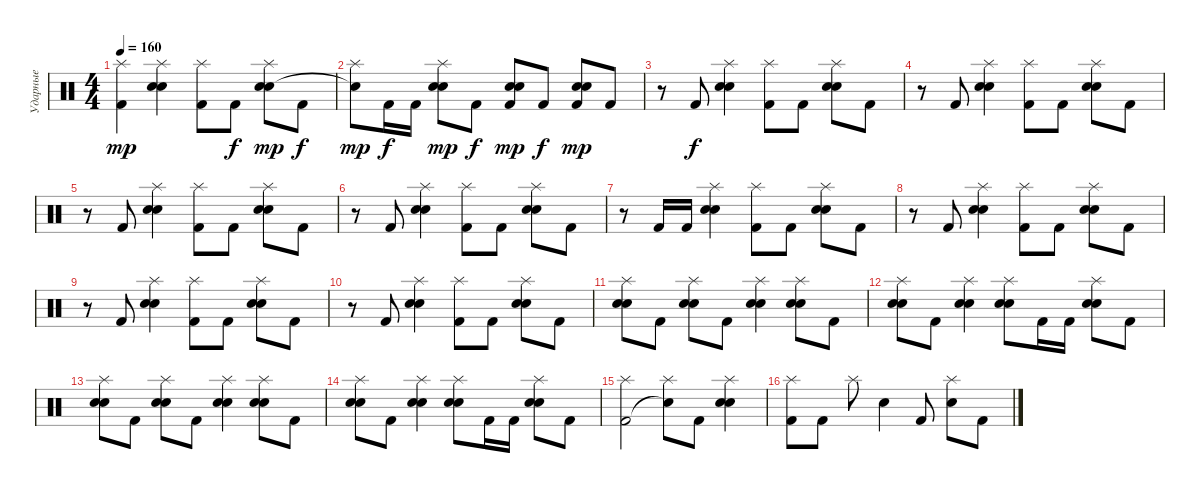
\track ("Ударные" "Ударные") {instrument percussion}
\staff {score}
\articulation defaults
\ts (4 4)
\tempo 160
\clef neutral
\ks c
("Splash (hit)" "Kick (hit) 2").4{dy mp} ("Splash (hit)" "Electric Snare (hit)" "Snare (hit) 2").4 ("Splash (hit)" "Kick (hit) 2").8 "Kick (hit) 2".8{dy f} ("Splash (hit)" "Electric Snare (hit)" "Snare (hit) 2").8{dy mp} "Kick (hit) 2".8{dy f} |
("Splash (hit)" "Snare (hit)"{t}).8{dy mp} "Kick (hit) 2".16{dy f} "Kick (hit) 2".16 ("Splash (hit)" "Electric Snare (hit)" "Snare (hit) 2").8{dy mp} "Kick (hit) 2".8{dy f} ("Electric Snare (hit)" "Snare (hit) 2" "Kick (hit) 2").8{dy mp} "Kick (hit) 2".8{dy f} ("Electric Snare (hit)" "Snare (hit) 2" "Kick (hit) 2").8{dy mp} "Kick (hit) 2".8 |
r.8 "Kick (hit) 2".8{dy f} ("Splash (hit)" "Electric Snare (hit)" "Snare (hit) 2").4 ("Splash (hit)" "Kick (hit) 2").8 "Kick (hit) 2".8 ("Splash (hit)" "Electric Snare (hit)" "Snare (hit) 2").8 "Kick (hit) 2".8 |
r.8 "Kick (hit) 2".8 ("Splash (hit)" "Electric Snare (hit)" "Snare (hit) 2").4 ("Splash (hit)" "Kick (hit) 2").8 "Kick (hit) 2".8 ("Splash (hit)" "Electric Snare (hit)" "Snare (hit) 2").8 "Kick (hit) 2".8 |
r.8 "Kick (hit) 2".8 ("Splash (hit)" "Electric Snare (hit)" "Snare (hit) 2").4 ("Splash (hit)" "Kick (hit) 2").8 "Kick (hit) 2".8 ("Splash (hit)" "Electric Snare (hit)" "Snare (hit) 2").8 "Kick (hit) 2".8 |
r.8 "Kick (hit) 2".8 ("Splash (hit)" "Electric Snare (hit)" "Snare (hit) 2").4 ("Splash (hit)" "Kick (hit) 2").8 "Kick (hit) 2".8 ("Splash (hit)" "Electric Snare (hit)" "Snare (hit) 2").8 "Kick (hit) 2".8 |
r.8 "Kick (hit) 2".16 "Kick (hit) 2".16 ("Splash (hit)" "Electric Snare (hit)" "Snare (hit) 2").4 ("Splash (hit)" "Kick (hit) 2").8 "Kick (hit) 2".8 ("Splash (hit)" "Electric Snare (hit)" "Snare (hit) 2").8 "Kick (hit) 2".8 |
r.8 "Kick (hit) 2".8 ("Splash (hit)" "Electric Snare (hit)" "Snare (hit) 2").4 ("Splash (hit)" "Kick (hit) 2").8 "Kick (hit) 2".8 ("Splash (hit)" "Electric Snare (hit)" "Snare (hit) 2").8 "Kick (hit) 2".8 |
r.8 "Kick (hit) 2".8 ("Splash (hit)" "Electric Snare (hit)" "Snare (hit) 2").4 ("Splash (hit)" "Kick (hit) 2").8 "Kick (hit) 2".8 ("Splash (hit)" "Electric Snare (hit)" "Snare (hit) 2").8 "Kick (hit) 2".8 |
r.8 "Kick (hit) 2".8 ("Splash (hit)" "Electric Snare (hit)" "Snare (hit) 2").4 ("Splash (hit)" "Kick (hit) 2").8 "Kick (hit) 2".8 ("Splash (hit)" "Electric Snare (hit)" "Snare (hit) 2").8 "Kick (hit) 2".8 |
("Splash (hit)" "Electric Snare (hit)" "Snare (hit) 2").8 "Kick (hit) 2".8 ("Splash (hit)" "Electric Snare (hit)" "Snare (hit) 2").8 "Kick (hit) 2".8 ("Splash (hit)" "Electric Snare (hit)" "Snare (hit) 2").4 ("Splash (hit)" "Electric Snare (hit)" "Snare (hit) 2").8 "Kick (hit) 2".8 |
("Splash (hit)" "Electric Snare (hit)" "Snare (hit) 2").8 "Kick (hit) 2".8 ("Splash (hit)" "Electric Snare (hit)" "Snare (hit) 2").4 ("Splash (hit)" "Electric Snare (hit)" "Snare (hit) 2").8 "Kick (hit) 2".16 "Kick (hit) 2".16 ("Splash (hit)" "Electric Snare (hit)" "Snare (hit) 2").8 "Kick (hit) 2".8 |
("Splash (hit)" "Electric Snare (hit)" "Snare (hit) 2").8 "Kick (hit) 2".8 ("Splash (hit)" "Electric Snare (hit)" "Snare (hit) 2").8 "Kick (hit) 2".8 ("Splash (hit)" "Electric Snare (hit)" "Snare (hit) 2").4 ("Splash (hit)" "Electric Snare (hit)" "Snare (hit) 2").8 "Kick (hit) 2".8 |
("Splash (hit)" "Electric Snare (hit)" "Snare (hit) 2").8 "Kick (hit) 2".8 ("Splash (hit)" "Electric Snare (hit)" "Snare (hit) 2").4 ("Splash (hit)" "Electric Snare (hit)" "Snare (hit) 2").8 "Kick (hit) 2".16 "Kick (hit) 2".16 ("Splash (hit)" "Electric Snare (hit)" "Snare (hit) 2").8 "Kick (hit) 2".8 |
("Splash (hit)" "Kick (hit) 2").2 ("Splash (hit)" "Snare (hit)"{t}).8 "Kick (hit) 2".8 ("Splash (hit)" "Electric Snare (hit)" "Snare (hit) 2").4 |
("Splash (hit)" "Kick (hit) 2").8 "Kick (hit) 2".8 "Splash (hit)".8 "Electric Snare (hit)".4 "Kick (hit) 2".8 ("Splash (hit)" "Electric Snare (hit)").8 "Kick (hit) 2".8
